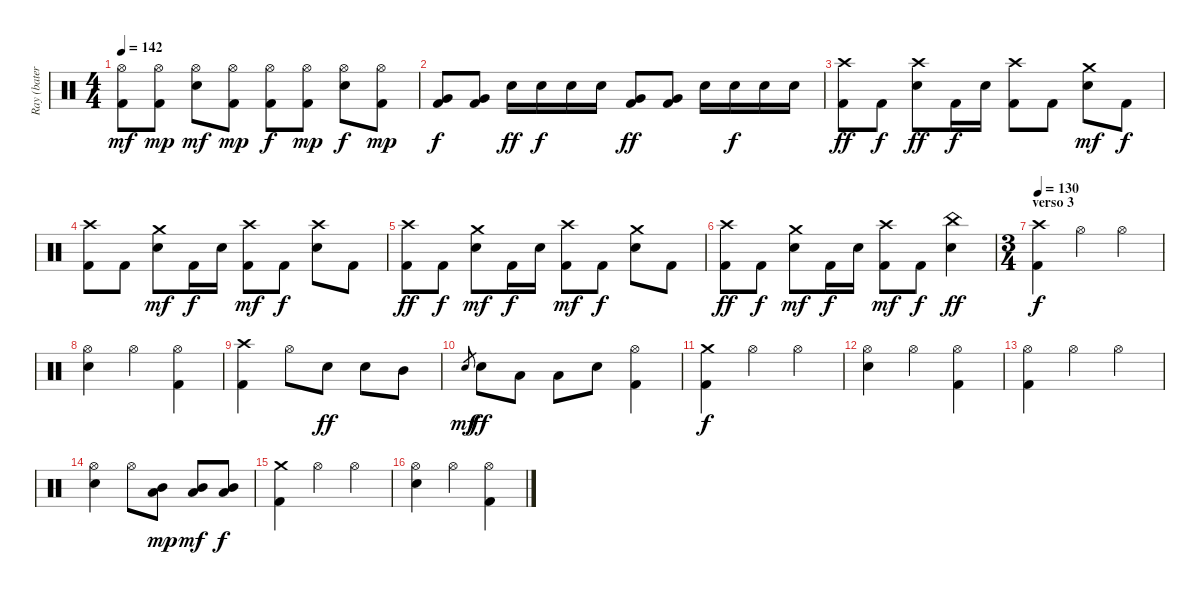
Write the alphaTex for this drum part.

\track ("Ray (batería)" "Ray (bater") {instrument percussion}
\staff {score}
\articulation defaults
\ts (4 4)
\tempo 142
\clef neutral
\ks c
("Hi-Hat (open)" "Kick (hit) 2").8{dy mf} ("Hi-Hat (open)" "Kick (hit) 2").8{dy mp} ("Hi-Hat (open)" "Snare (hit) 2").8{dy mf} ("Hi-Hat (open)" "Kick (hit) 2").8{dy mp} ("Hi-Hat (open)" "Kick (hit) 2").8{dy f} ("Hi-Hat (open)" "Kick (hit) 2").8{dy mp} ("Hi-Hat (open)" "Snare (hit) 2").8{dy f} ("Hi-Hat (open)" "Kick (hit) 2").8{dy mp} |
("Very Low Tom (hit)" "Kick (hit) 2").8{dy f} ("Very Low Tom (hit)" "Kick (hit) 2").8 "Snare (hit) 2".16{dy ff} "Snare (hit) 2".16{dy f} "Snare (hit) 2".16 "Snare (hit) 2".16 ("Very Low Tom (hit)" "Kick (hit) 2").8{dy ff} ("Very Low Tom (hit)" "Kick (hit) 2").8 "Snare (hit) 2".16 "Snare (hit) 2".16{dy f} "Snare (hit) 2".16 "Snare (hit) 2".16 |
("Crash high (hit)" "Kick (hit) 2").8{dy ff} "Kick (hit) 2".8{dy f} ("Crash high (hit)" "Snare (hit) 2").8{dy ff} "Kick (hit) 2".16{dy f} "Snare (hit) 2".16 ("Crash high (hit)" "Kick (hit) 2").8 "Kick (hit) 2".8 ("Crash medium (hit)" "Snare (hit) 2").8{dy mf} "Kick (hit) 2".8{dy f} |
("Crash high (hit)" "Kick (hit) 2").8 "Kick (hit) 2".8 ("Crash medium (hit)" "Snare (hit) 2").8{dy mf} "Kick (hit) 2".16{dy f} "Snare (hit) 2".16 ("Crash high (hit)" "Kick (hit) 2").8{dy mf} "Kick (hit) 2".8{dy f} ("Crash high (hit)" "Snare (hit) 2").8 "Kick (hit) 2".8 |
("Crash high (hit)" "Kick (hit) 2").8{dy ff} "Kick (hit) 2".8{dy f} ("Crash medium (hit)" "Snare (hit) 2").8{dy mf} "Kick (hit) 2".16{dy f} "Snare (hit) 2".16 ("Crash high (hit)" "Kick (hit) 2").8{dy mf} "Kick (hit) 2".8{dy f} ("Crash medium (hit)" "Snare (hit) 2").8 "Kick (hit) 2".8 |
("Crash high (hit)" "Kick (hit) 2").8{dy ff} "Kick (hit) 2".8{dy f} ("Crash medium (hit)" "Snare (hit) 2").8{dy mf} "Kick (hit) 2".16{dy f} "Snare (hit) 2".16 ("Crash high (hit)" "Kick (hit) 2").8{dy mf} "Kick (hit) 2".8{dy f} ("China (hit)" "Snare (hit) 2").4{dy ff} |
\ts (3 4)
\section ("" "verso 3")
\tempo 130
("Crash high (hit)" "Kick (hit) 2").4{dy f} "Hi-Hat (open)".4 "Hi-Hat (open)".4 |
("Hi-Hat (open)" "Snare (hit) 2").4 "Hi-Hat (open)".4 ("Hi-Hat (open)" "Kick (hit) 2").4 |
("Crash high (hit)" "Kick (hit) 2").4 "Hi-Hat (open)".8 "Snare (hit) 2".8{dy ff} "Snare (hit) 2".8 "Mid Tom (hit)".8 |
"Snare (hit) 2".8{gr dy mf} "Snare (hit) 2".8{dy ff} "Low Tom (hit)".8 "Low Tom (hit)".8 "Snare (hit) 2".8 ("Hi-Hat (open)" "Kick (hit) 2").4 |
("Crash medium (hit)" "Kick (hit) 2").4{dy f} "Hi-Hat (open)".4 "Hi-Hat (open)".4 |
("Hi-Hat (open)" "Snare (hit) 2").4 "Hi-Hat (open)".4 ("Hi-Hat (open)" "Kick (hit) 2").4 |
("Hi-Hat (open)" "Kick (hit) 2").4 "Hi-Hat (open)".4 "Hi-Hat (open)".4 |
("Hi-Hat (open)" "Snare (hit) 2").4 "Hi-Hat (open)".8 ("Mid Tom (hit)" "Low Tom (hit)").8{dy mp} ("Mid Tom (hit)" "Low Tom (hit)").8{dy mf} ("Mid Tom (hit)" "Low Tom (hit)").8{dy f} |
("Crash medium (hit)" "Kick (hit) 2").4 "Hi-Hat (open)".4 "Hi-Hat (open)".4 |
("Hi-Hat (open)" "Snare (hit) 2").4 "Hi-Hat (open)".4 ("Hi-Hat (open)" "Kick (hit) 2").4
